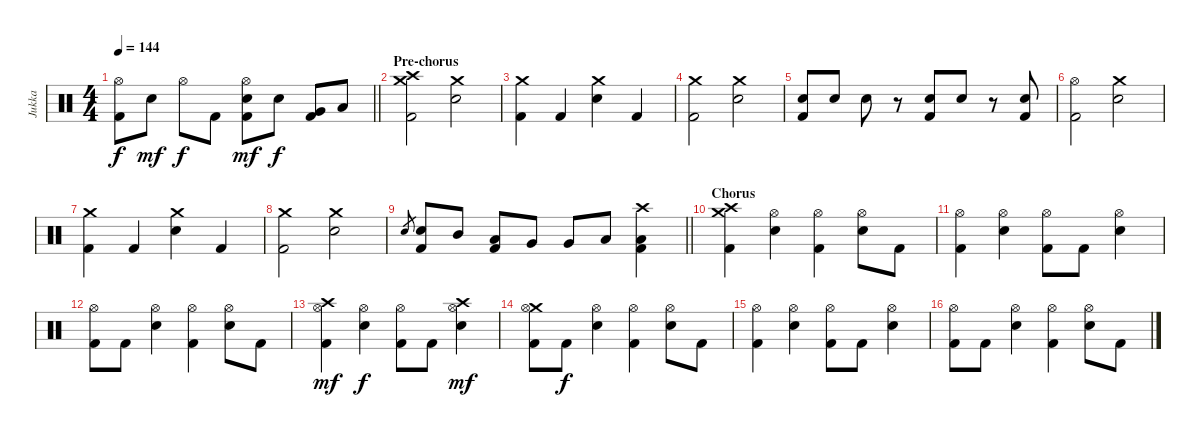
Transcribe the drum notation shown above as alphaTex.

\track ("Jukka" "Jukka") {instrument percussion}
\staff {score}
\articulation defaults
\ts (4 4)
\tempo 144
\clef neutral
\barLineRight lightlight
\ks c
("Hi-Hat (open)" "Kick (hit) 2").8{dy f} "Electric Snare (hit)".8{dy mf} "Hi-Hat (open)".8{dy f} "Kick (hit) 2".8 ("Hi-Hat (open)" "Electric Snare (hit)" "Kick (hit) 2").8{dy mf} "Electric Snare (hit)".8{dy f} ("Very Low Tom (hit)" "Kick (hit) 2").8 "Low Floor Tom (hit)".8 |
\section ("" "Pre-chorus")
("Crash high (hit)" "Crash medium (hit)" "Kick (hit) 2").2 ("Crash medium (hit)" "Electric Snare (hit)").2 |
("Crash medium (hit)" "Kick (hit) 2").4 "Kick (hit) 2".4 ("Crash medium (hit)" "Electric Snare (hit)").4 "Kick (hit) 2".4 |
("Crash medium (hit)" "Kick (hit) 2").2 ("Crash medium (hit)" "Electric Snare (hit)").2 |
("Electric Snare (hit)" "Kick (hit) 2").8 "Electric Snare (hit)".8 "Electric Snare (hit)".8 r.8 ("Electric Snare (hit)" "Kick (hit) 2").8 "Electric Snare (hit)".8 r.8 ("Electric Snare (hit)" "Kick (hit) 2").8 |
("Hi-Hat (open)" "Kick (hit) 2").2 ("Crash medium (hit)" "Electric Snare (hit)").2 |
("Crash medium (hit)" "Kick (hit) 2").4 "Kick (hit) 2".4 ("Crash medium (hit)" "Electric Snare (hit)").4 "Kick (hit) 2".4 |
("Crash medium (hit)" "Kick (hit) 2").2 ("Crash medium (hit)" "Electric Snare (hit)").2 |
\barLineRight lightlight "Electric Snare (hit)".8{gr}
("Electric Snare (hit)" "Kick (hit) 2").8 "Mid Tom (hit)".8 ("Low Tom (hit)" "Kick (hit) 2").8 "Very Low Tom (hit)".8 "Very Low Tom (hit)".8 "Low Floor Tom (hit)".8 ("Crash high (hit)" "Low Floor Tom (hit)" "Kick (hit) 2").4 |
\section ("" "Chorus")
("Crash high (hit)" "Crash medium (hit)" "Kick (hit) 2").4 ("Hi-Hat (open)" "Electric Snare (hit)").4 ("Hi-Hat (open)" "Kick (hit) 2").4 ("Hi-Hat (open)" "Electric Snare (hit)").8 "Kick (hit) 2".8 |
("Hi-Hat (open)" "Kick (hit) 2").4 ("Hi-Hat (open)" "Electric Snare (hit)").4 ("Hi-Hat (open)" "Kick (hit) 2").8 "Kick (hit) 2".8 ("Hi-Hat (open)" "Electric Snare (hit)").4 |
("Hi-Hat (open)" "Kick (hit) 2").8 "Kick (hit) 2".8 ("Hi-Hat (open)" "Electric Snare (hit)").4 ("Hi-Hat (open)" "Kick (hit) 2").4 ("Hi-Hat (open)" "Electric Snare (hit)").8 "Kick (hit) 2".8 |
("Crash high (hit)" "Hi-Hat (open)" "Kick (hit) 2").4{dy mf} ("Hi-Hat (open)" "Electric Snare (hit)").4{dy f} ("Hi-Hat (open)" "Kick (hit) 2").8 "Kick (hit) 2".8 ("Crash high (hit)" "Hi-Hat (open)" "Electric Snare (hit)").4{dy mf} |
("Crash medium (hit)" "Hi-Hat (open)" "Kick (hit) 2").8 "Kick (hit) 2".8{dy f} ("Hi-Hat (open)" "Electric Snare (hit)").4 ("Hi-Hat (open)" "Kick (hit) 2").4 ("Hi-Hat (open)" "Electric Snare (hit)").8 "Kick (hit) 2".8 |
("Hi-Hat (open)" "Kick (hit) 2").4 ("Hi-Hat (open)" "Electric Snare (hit)").4 ("Hi-Hat (open)" "Kick (hit) 2").8 "Kick (hit) 2".8 ("Hi-Hat (open)" "Electric Snare (hit)").4 |
("Hi-Hat (open)" "Kick (hit) 2").8 "Kick (hit) 2".8 ("Hi-Hat (open)" "Electric Snare (hit)").4 ("Hi-Hat (open)" "Kick (hit) 2").4 ("Hi-Hat (open)" "Electric Snare (hit)").8 "Kick (hit) 2".8
